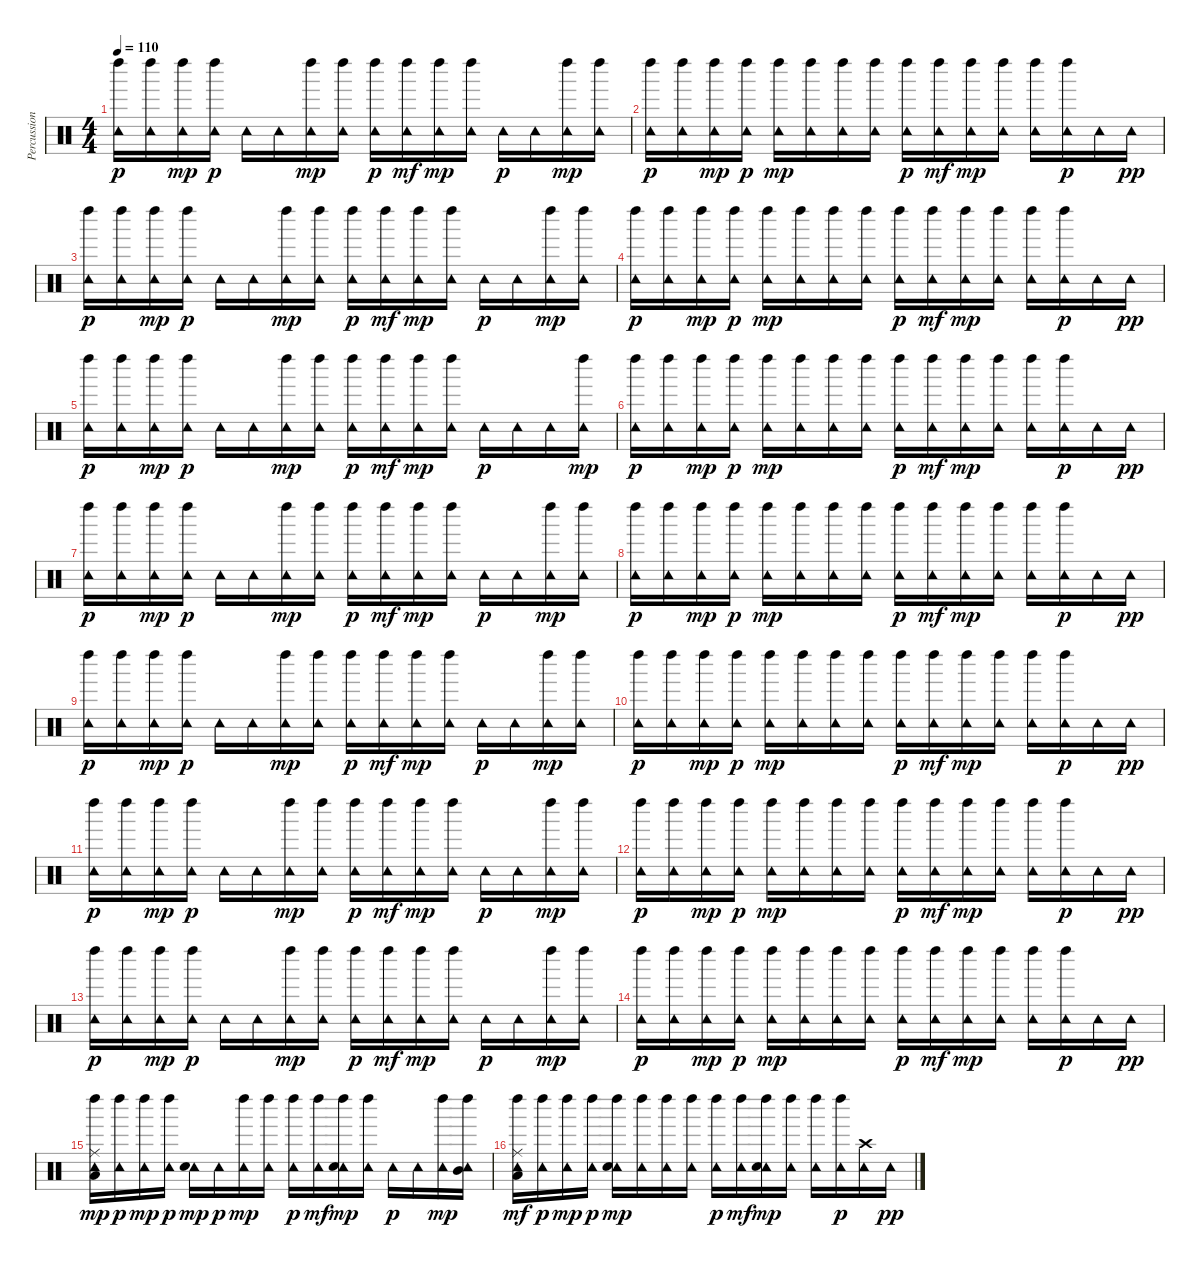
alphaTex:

\track ("Percussion" "Percussion") {instrument percussion}
\staff {score}
\articulation defaults
\ts (4 4)
\tempo 110
\clef neutral
\ks c
("Tambourine (hit)" "Left Maraca (hit)").16{dy p} ("Left Maraca (hit)" "Tambourine (hit)").16 ("Tambourine (hit)" "Left Maraca (hit)").16{dy mp} ("Left Maraca (hit)" "Tambourine (hit)").16{dy p} "Tambourine (hit)".16 "Tambourine (hit)".16 ("Tambourine (hit)" "Left Maraca (hit)").16{dy mp} ("Tambourine (hit)" "Left Maraca (hit)").16 ("Tambourine (hit)" "Left Maraca (hit)").16{dy p} ("Tambourine (hit)" "Left Maraca (hit)").16{dy mf} ("Tambourine (hit)" "Left Maraca (hit)").16{dy mp} ("Tambourine (hit)" "Left Maraca (hit)").16 "Tambourine (hit)".16{dy p} "Tambourine (hit)".16 ("Tambourine (hit)" "Left Maraca (hit)").16{dy mp} ("Tambourine (hit)" "Left Maraca (hit)").16 |
("Tambourine (hit)" "Left Maraca (hit)").16{dy p} ("Left Maraca (hit)" "Tambourine (hit)").16 ("Tambourine (hit)" "Left Maraca (hit)").16{dy mp} ("Left Maraca (hit)" "Tambourine (hit)").16{dy p} ("Tambourine (hit)" "Left Maraca (hit)").16{dy mp} ("Tambourine (hit)" "Left Maraca (hit)").16 ("Tambourine (hit)" "Left Maraca (hit)").16 ("Tambourine (hit)" "Left Maraca (hit)").16 ("Tambourine (hit)" "Left Maraca (hit)").16{dy p} ("Tambourine (hit)" "Left Maraca (hit)").16{dy mf} ("Tambourine (hit)" "Left Maraca (hit)").16{dy mp} ("Tambourine (hit)" "Left Maraca (hit)").16 ("Tambourine (hit)" "Left Maraca (hit)").16 ("Tambourine (hit)" "Left Maraca (hit)").16{dy p} "Tambourine (hit)".16 "Tambourine (hit)".16{dy pp} |
("Tambourine (hit)" "Left Maraca (hit)").16{dy p} ("Left Maraca (hit)" "Tambourine (hit)").16 ("Tambourine (hit)" "Left Maraca (hit)").16{dy mp} ("Left Maraca (hit)" "Tambourine (hit)").16{dy p} "Tambourine (hit)".16 "Tambourine (hit)".16 ("Tambourine (hit)" "Left Maraca (hit)").16{dy mp} ("Tambourine (hit)" "Left Maraca (hit)").16 ("Tambourine (hit)" "Left Maraca (hit)").16{dy p} ("Tambourine (hit)" "Left Maraca (hit)").16{dy mf} ("Tambourine (hit)" "Left Maraca (hit)").16{dy mp} ("Tambourine (hit)" "Left Maraca (hit)").16 "Tambourine (hit)".16{dy p} "Tambourine (hit)".16 ("Tambourine (hit)" "Left Maraca (hit)").16{dy mp} ("Tambourine (hit)" "Left Maraca (hit)").16 |
("Tambourine (hit)" "Left Maraca (hit)").16{dy p} ("Left Maraca (hit)" "Tambourine (hit)").16 ("Tambourine (hit)" "Left Maraca (hit)").16{dy mp} ("Left Maraca (hit)" "Tambourine (hit)").16{dy p} ("Tambourine (hit)" "Left Maraca (hit)").16{dy mp} ("Tambourine (hit)" "Left Maraca (hit)").16 ("Tambourine (hit)" "Left Maraca (hit)").16 ("Tambourine (hit)" "Left Maraca (hit)").16 ("Tambourine (hit)" "Left Maraca (hit)").16{dy p} ("Tambourine (hit)" "Left Maraca (hit)").16{dy mf} ("Tambourine (hit)" "Left Maraca (hit)").16{dy mp} ("Tambourine (hit)" "Left Maraca (hit)").16 ("Tambourine (hit)" "Left Maraca (hit)").16 ("Tambourine (hit)" "Left Maraca (hit)").16{dy p} "Tambourine (hit)".16 "Tambourine (hit)".16{dy pp} |
("Tambourine (hit)" "Left Maraca (hit)").16{dy p} ("Left Maraca (hit)" "Tambourine (hit)").16 ("Tambourine (hit)" "Left Maraca (hit)").16{dy mp} ("Left Maraca (hit)" "Tambourine (hit)").16{dy p} "Tambourine (hit)".16 "Tambourine (hit)".16 ("Tambourine (hit)" "Left Maraca (hit)").16{dy mp} ("Tambourine (hit)" "Left Maraca (hit)").16 ("Tambourine (hit)" "Left Maraca (hit)").16{dy p} ("Tambourine (hit)" "Left Maraca (hit)").16{dy mf} ("Tambourine (hit)" "Left Maraca (hit)").16{dy mp} ("Tambourine (hit)" "Left Maraca (hit)").16 "Tambourine (hit)".16{dy p} "Tambourine (hit)".16 "Tambourine (hit)".16 ("Tambourine (hit)" "Left Maraca (hit)").16{dy mp} |
("Tambourine (hit)" "Left Maraca (hit)").16{dy p} ("Left Maraca (hit)" "Tambourine (hit)").16 ("Tambourine (hit)" "Left Maraca (hit)").16{dy mp} ("Left Maraca (hit)" "Tambourine (hit)").16{dy p} ("Tambourine (hit)" "Left Maraca (hit)").16{dy mp} ("Tambourine (hit)" "Left Maraca (hit)").16 ("Tambourine (hit)" "Left Maraca (hit)").16 ("Tambourine (hit)" "Left Maraca (hit)").16 ("Tambourine (hit)" "Left Maraca (hit)").16{dy p} ("Tambourine (hit)" "Left Maraca (hit)").16{dy mf} ("Tambourine (hit)" "Left Maraca (hit)").16{dy mp} ("Tambourine (hit)" "Left Maraca (hit)").16 ("Tambourine (hit)" "Left Maraca (hit)").16 ("Tambourine (hit)" "Left Maraca (hit)").16{dy p} "Tambourine (hit)".16 "Tambourine (hit)".16{dy pp} |
("Tambourine (hit)" "Left Maraca (hit)").16{dy p} ("Left Maraca (hit)" "Tambourine (hit)").16 ("Tambourine (hit)" "Left Maraca (hit)").16{dy mp} ("Left Maraca (hit)" "Tambourine (hit)").16{dy p} "Tambourine (hit)".16 "Tambourine (hit)".16 ("Tambourine (hit)" "Left Maraca (hit)").16{dy mp} ("Tambourine (hit)" "Left Maraca (hit)").16 ("Tambourine (hit)" "Left Maraca (hit)").16{dy p} ("Tambourine (hit)" "Left Maraca (hit)").16{dy mf} ("Tambourine (hit)" "Left Maraca (hit)").16{dy mp} ("Tambourine (hit)" "Left Maraca (hit)").16 "Tambourine (hit)".16{dy p} "Tambourine (hit)".16 ("Tambourine (hit)" "Left Maraca (hit)").16{dy mp} ("Tambourine (hit)" "Left Maraca (hit)").16 |
("Tambourine (hit)" "Left Maraca (hit)").16{dy p} ("Left Maraca (hit)" "Tambourine (hit)").16 ("Tambourine (hit)" "Left Maraca (hit)").16{dy mp} ("Left Maraca (hit)" "Tambourine (hit)").16{dy p} ("Tambourine (hit)" "Left Maraca (hit)").16{dy mp} ("Tambourine (hit)" "Left Maraca (hit)").16 ("Tambourine (hit)" "Left Maraca (hit)").16 ("Tambourine (hit)" "Left Maraca (hit)").16 ("Tambourine (hit)" "Left Maraca (hit)").16{dy p} ("Tambourine (hit)" "Left Maraca (hit)").16{dy mf} ("Tambourine (hit)" "Left Maraca (hit)").16{dy mp} ("Tambourine (hit)" "Left Maraca (hit)").16 ("Tambourine (hit)" "Left Maraca (hit)").16 ("Tambourine (hit)" "Left Maraca (hit)").16{dy p} "Tambourine (hit)".16 "Tambourine (hit)".16{dy pp} |
("Tambourine (hit)" "Left Maraca (hit)").16{dy p} ("Left Maraca (hit)" "Tambourine (hit)").16 ("Tambourine (hit)" "Left Maraca (hit)").16{dy mp} ("Left Maraca (hit)" "Tambourine (hit)").16{dy p} "Tambourine (hit)".16 "Tambourine (hit)".16 ("Tambourine (hit)" "Left Maraca (hit)").16{dy mp} ("Tambourine (hit)" "Left Maraca (hit)").16 ("Tambourine (hit)" "Left Maraca (hit)").16{dy p} ("Tambourine (hit)" "Left Maraca (hit)").16{dy mf} ("Tambourine (hit)" "Left Maraca (hit)").16{dy mp} ("Tambourine (hit)" "Left Maraca (hit)").16 "Tambourine (hit)".16{dy p} "Tambourine (hit)".16 ("Tambourine (hit)" "Left Maraca (hit)").16{dy mp} ("Tambourine (hit)" "Left Maraca (hit)").16 |
("Tambourine (hit)" "Left Maraca (hit)").16{dy p} ("Left Maraca (hit)" "Tambourine (hit)").16 ("Tambourine (hit)" "Left Maraca (hit)").16{dy mp} ("Left Maraca (hit)" "Tambourine (hit)").16{dy p} ("Tambourine (hit)" "Left Maraca (hit)").16{dy mp} ("Tambourine (hit)" "Left Maraca (hit)").16 ("Tambourine (hit)" "Left Maraca (hit)").16 ("Tambourine (hit)" "Left Maraca (hit)").16 ("Tambourine (hit)" "Left Maraca (hit)").16{dy p} ("Tambourine (hit)" "Left Maraca (hit)").16{dy mf} ("Tambourine (hit)" "Left Maraca (hit)").16{dy mp} ("Tambourine (hit)" "Left Maraca (hit)").16 ("Tambourine (hit)" "Left Maraca (hit)").16 ("Tambourine (hit)" "Left Maraca (hit)").16{dy p} "Tambourine (hit)".16 "Tambourine (hit)".16{dy pp} |
("Tambourine (hit)" "Left Maraca (hit)").16{dy p} ("Left Maraca (hit)" "Tambourine (hit)").16 ("Tambourine (hit)" "Left Maraca (hit)").16{dy mp} ("Left Maraca (hit)" "Tambourine (hit)").16{dy p} "Tambourine (hit)".16 "Tambourine (hit)".16 ("Tambourine (hit)" "Left Maraca (hit)").16{dy mp} ("Tambourine (hit)" "Left Maraca (hit)").16 ("Tambourine (hit)" "Left Maraca (hit)").16{dy p} ("Tambourine (hit)" "Left Maraca (hit)").16{dy mf} ("Tambourine (hit)" "Left Maraca (hit)").16{dy mp} ("Tambourine (hit)" "Left Maraca (hit)").16 "Tambourine (hit)".16{dy p} "Tambourine (hit)".16 ("Tambourine (hit)" "Left Maraca (hit)").16{dy mp} ("Tambourine (hit)" "Left Maraca (hit)").16 |
("Tambourine (hit)" "Left Maraca (hit)").16{dy p} ("Left Maraca (hit)" "Tambourine (hit)").16 ("Tambourine (hit)" "Left Maraca (hit)").16{dy mp} ("Left Maraca (hit)" "Tambourine (hit)").16{dy p} ("Tambourine (hit)" "Left Maraca (hit)").16{dy mp} ("Tambourine (hit)" "Left Maraca (hit)").16 ("Tambourine (hit)" "Left Maraca (hit)").16 ("Tambourine (hit)" "Left Maraca (hit)").16 ("Tambourine (hit)" "Left Maraca (hit)").16{dy p} ("Tambourine (hit)" "Left Maraca (hit)").16{dy mf} ("Tambourine (hit)" "Left Maraca (hit)").16{dy mp} ("Tambourine (hit)" "Left Maraca (hit)").16 ("Tambourine (hit)" "Left Maraca (hit)").16 ("Tambourine (hit)" "Left Maraca (hit)").16{dy p} "Tambourine (hit)".16 "Tambourine (hit)".16{dy pp} |
("Tambourine (hit)" "Left Maraca (hit)").16{dy p} ("Left Maraca (hit)" "Tambourine (hit)").16 ("Tambourine (hit)" "Left Maraca (hit)").16{dy mp} ("Left Maraca (hit)" "Tambourine (hit)").16{dy p} "Tambourine (hit)".16 "Tambourine (hit)".16 ("Tambourine (hit)" "Left Maraca (hit)").16{dy mp} ("Tambourine (hit)" "Left Maraca (hit)").16 ("Tambourine (hit)" "Left Maraca (hit)").16{dy p} ("Tambourine (hit)" "Left Maraca (hit)").16{dy mf} ("Tambourine (hit)" "Left Maraca (hit)").16{dy mp} ("Tambourine (hit)" "Left Maraca (hit)").16 "Tambourine (hit)".16{dy p} "Tambourine (hit)".16 ("Tambourine (hit)" "Left Maraca (hit)").16{dy mp} ("Tambourine (hit)" "Left Maraca (hit)").16 |
("Tambourine (hit)" "Left Maraca (hit)").16{dy p} ("Left Maraca (hit)" "Tambourine (hit)").16 ("Tambourine (hit)" "Left Maraca (hit)").16{dy mp} ("Left Maraca (hit)" "Tambourine (hit)").16{dy p} ("Tambourine (hit)" "Left Maraca (hit)").16{dy mp} ("Tambourine (hit)" "Left Maraca (hit)").16 ("Tambourine (hit)" "Left Maraca (hit)").16 ("Tambourine (hit)" "Left Maraca (hit)").16 ("Tambourine (hit)" "Left Maraca (hit)").16{dy p} ("Tambourine (hit)" "Left Maraca (hit)").16{dy mf} ("Tambourine (hit)" "Left Maraca (hit)").16{dy mp} ("Tambourine (hit)" "Left Maraca (hit)").16 ("Tambourine (hit)" "Left Maraca (hit)").16 ("Tambourine (hit)" "Left Maraca (hit)").16{dy p} "Tambourine (hit)".16 "Tambourine (hit)".16{dy pp} |
("Tambourine (hit)" "Left Maraca (hit)" "Ride (middle)" "Low Tom (hit)").16{dy mp} ("Left Maraca (hit)" "Tambourine (hit)").16{dy p} ("Tambourine (hit)" "Left Maraca (hit)").16{dy mp} ("Left Maraca (hit)" "Tambourine (hit)").16{dy p} ("Tambourine (hit)" "Electric Snare (hit)").16{dy mp} "Tambourine (hit)".16{dy p} ("Tambourine (hit)" "Left Maraca (hit)").16{dy mp} ("Tambourine (hit)" "Left Maraca (hit)").16 ("Tambourine (hit)" "Left Maraca (hit)").16{dy p} ("Tambourine (hit)" "Left Maraca (hit)").16{dy mf} ("Tambourine (hit)" "Left Maraca (hit)" "Electric Snare (hit)").16{dy mp} ("Tambourine (hit)" "Left Maraca (hit)").16 "Tambourine (hit)".16{dy p} "Tambourine (hit)".16 ("Tambourine (hit)" "Left Maraca (hit)").16{dy mp} ("Tambourine (hit)" "Left Maraca (hit)" "Mid Tom (hit)").16 |
("Tambourine (hit)" "Left Maraca (hit)" "Low Tom (hit)" "Ride (middle)").16{dy mf} ("Left Maraca (hit)" "Tambourine (hit)").16{dy p} ("Tambourine (hit)" "Left Maraca (hit)").16{dy mp} ("Left Maraca (hit)" "Tambourine (hit)").16{dy p} ("Tambourine (hit)" "Left Maraca (hit)" "Electric Snare (hit)").16{dy mp} ("Tambourine (hit)" "Left Maraca (hit)").16 ("Tambourine (hit)" "Left Maraca (hit)").16 ("Tambourine (hit)" "Left Maraca (hit)").16 ("Tambourine (hit)" "Left Maraca (hit)").16{dy p} ("Tambourine (hit)" "Left Maraca (hit)").16{dy mf} ("Tambourine (hit)" "Left Maraca (hit)" "Electric Snare (hit)").16{dy mp} ("Tambourine (hit)" "Left Maraca (hit)").16 ("Tambourine (hit)" "Left Maraca (hit)").16 ("Tambourine (hit)" "Left Maraca (hit)").16{dy p} ("Tambourine (hit)" "Crash high (hit)").16 "Tambourine (hit)".16{dy pp}
